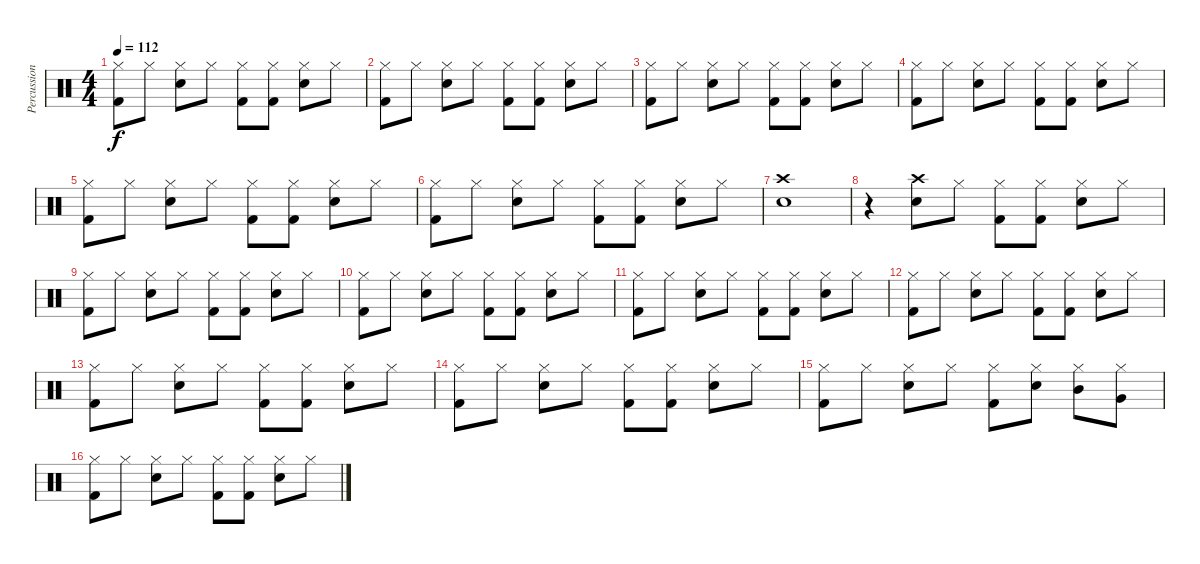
\track ("Percussion" "Percussion") {instrument percussion}
\staff {score}
\articulation defaults
\ts (4 4)
\tempo 112
\clef neutral
\ks c
("Kick (hit) 2" "Hi-Hat (closed)").8{dy f} "Hi-Hat (closed)".8 ("Snare (hit) 2" "Hi-Hat (closed)").8 "Hi-Hat (closed)".8 ("Kick (hit) 2" "Hi-Hat (closed)").8 ("Kick (hit) 2" "Hi-Hat (closed)").8 ("Snare (hit) 2" "Hi-Hat (closed)").8 "Hi-Hat (closed)".8 |
("Kick (hit) 2" "Hi-Hat (closed)").8 "Hi-Hat (closed)".8 ("Snare (hit) 2" "Hi-Hat (closed)").8 "Hi-Hat (closed)".8 ("Kick (hit) 2" "Hi-Hat (closed)").8 ("Kick (hit) 2" "Hi-Hat (closed)").8 ("Snare (hit) 2" "Hi-Hat (closed)").8 "Hi-Hat (closed)".8 |
("Kick (hit) 2" "Hi-Hat (closed)").8 "Hi-Hat (closed)".8 ("Snare (hit) 2" "Hi-Hat (closed)").8 "Hi-Hat (closed)".8 ("Kick (hit) 2" "Hi-Hat (closed)").8 ("Kick (hit) 2" "Hi-Hat (closed)").8 ("Snare (hit) 2" "Hi-Hat (closed)").8 "Hi-Hat (closed)".8 |
("Kick (hit) 2" "Hi-Hat (closed)").8 "Hi-Hat (closed)".8 ("Snare (hit) 2" "Hi-Hat (closed)").8 "Hi-Hat (closed)".8 ("Kick (hit) 2" "Hi-Hat (closed)").8 ("Kick (hit) 2" "Hi-Hat (closed)").8 ("Snare (hit) 2" "Hi-Hat (closed)").8 "Hi-Hat (closed)".8 |
("Kick (hit) 2" "Hi-Hat (closed)").8 "Hi-Hat (closed)".8 ("Snare (hit) 2" "Hi-Hat (closed)").8 "Hi-Hat (closed)".8 ("Kick (hit) 2" "Hi-Hat (closed)").8 ("Kick (hit) 2" "Hi-Hat (closed)").8 ("Snare (hit) 2" "Hi-Hat (closed)").8 "Hi-Hat (closed)".8 |
("Kick (hit) 2" "Hi-Hat (closed)").8 "Hi-Hat (closed)".8 ("Snare (hit) 2" "Hi-Hat (closed)").8 "Hi-Hat (closed)".8 ("Kick (hit) 2" "Hi-Hat (closed)").8 ("Kick (hit) 2" "Hi-Hat (closed)").8 ("Snare (hit) 2" "Hi-Hat (closed)").8 "Hi-Hat (closed)".8 |
("Snare (hit) 2" "Crash high (hit)").1 |
r.4 ("Snare (hit) 2" "Crash high (hit)").8 "Hi-Hat (closed)".8 ("Kick (hit) 2" "Hi-Hat (closed)").8 ("Kick (hit) 2" "Hi-Hat (closed)").8 ("Snare (hit) 2" "Hi-Hat (closed)").8 "Hi-Hat (closed)".8 |
("Kick (hit) 2" "Hi-Hat (closed)").8 "Hi-Hat (closed)".8 ("Snare (hit) 2" "Hi-Hat (closed)").8 "Hi-Hat (closed)".8 ("Kick (hit) 2" "Hi-Hat (closed)").8 ("Kick (hit) 2" "Hi-Hat (closed)").8 ("Snare (hit) 2" "Hi-Hat (closed)").8 "Hi-Hat (closed)".8 |
("Kick (hit) 2" "Hi-Hat (closed)").8 "Hi-Hat (closed)".8 ("Snare (hit) 2" "Hi-Hat (closed)").8 "Hi-Hat (closed)".8 ("Kick (hit) 2" "Hi-Hat (closed)").8 ("Kick (hit) 2" "Hi-Hat (closed)").8 ("Snare (hit) 2" "Hi-Hat (closed)").8 "Hi-Hat (closed)".8 |
("Kick (hit) 2" "Hi-Hat (closed)").8 "Hi-Hat (closed)".8 ("Snare (hit) 2" "Hi-Hat (closed)").8 "Hi-Hat (closed)".8 ("Kick (hit) 2" "Hi-Hat (closed)").8 ("Kick (hit) 2" "Hi-Hat (closed)").8 ("Snare (hit) 2" "Hi-Hat (closed)").8 "Hi-Hat (closed)".8 |
("Kick (hit) 2" "Hi-Hat (closed)").8 "Hi-Hat (closed)".8 ("Snare (hit) 2" "Hi-Hat (closed)").8 "Hi-Hat (closed)".8 ("Kick (hit) 2" "Hi-Hat (closed)").8 ("Kick (hit) 2" "Hi-Hat (closed)").8 ("Snare (hit) 2" "Hi-Hat (closed)").8 "Hi-Hat (closed)".8 |
("Kick (hit) 2" "Hi-Hat (closed)").8 "Hi-Hat (closed)".8 ("Snare (hit) 2" "Hi-Hat (closed)").8 "Hi-Hat (closed)".8 ("Kick (hit) 2" "Hi-Hat (closed)").8 ("Kick (hit) 2" "Hi-Hat (closed)").8 ("Snare (hit) 2" "Hi-Hat (closed)").8 "Hi-Hat (closed)".8 |
("Kick (hit) 2" "Hi-Hat (closed)").8 "Hi-Hat (closed)".8 ("Snare (hit) 2" "Hi-Hat (closed)").8 "Hi-Hat (closed)".8 ("Kick (hit) 2" "Hi-Hat (closed)").8 ("Kick (hit) 2" "Hi-Hat (closed)").8 ("Snare (hit) 2" "Hi-Hat (closed)").8 "Hi-Hat (closed)".8 |
("Kick (hit) 2" "Hi-Hat (closed)").8 "Hi-Hat (closed)".8 ("Snare (hit) 2" "Hi-Hat (closed)").8 "Hi-Hat (closed)".8 ("Kick (hit) 2" "Hi-Hat (closed)").8 ("Snare (hit) 2" "Hi-Hat (closed)").8 ("Mid Tom (hit)" "Hi-Hat (closed)").8 ("Very Low Tom (hit)" "Hi-Hat (closed)").8 |
("Kick (hit) 2" "Hi-Hat (closed)").8 "Hi-Hat (closed)".8 ("Snare (hit) 2" "Hi-Hat (closed)").8 "Hi-Hat (closed)".8 ("Kick (hit) 2" "Hi-Hat (closed)").8 ("Kick (hit) 2" "Hi-Hat (closed)").8 ("Snare (hit) 2" "Hi-Hat (closed)").8 "Hi-Hat (closed)".8
